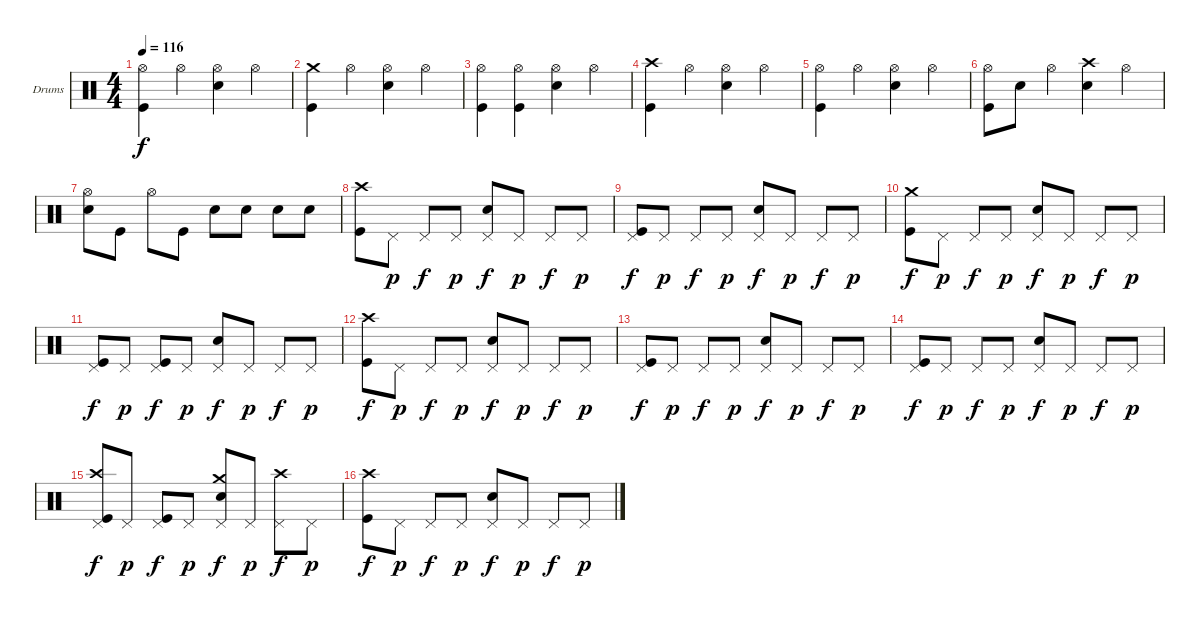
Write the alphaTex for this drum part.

\bracketExtendMode nobrackets
\firstSystemTrackNameOrientation horizontal
\otherSystemsTrackNameOrientation horizontal
\track ("Drumkit" "Drums") {instrument percussion}
\staff {score}
\articulation defaults
\ts (4 4)
\tempo 116
\clef neutral
\ks c
("Kick (hit)" "Hi-Hat (open)").4{dy f} "Hi-Hat (open)".4 ("Hi-Hat (open)" "Snare (hit) 2").4 "Hi-Hat (open)".4 |
("Kick (hit)" "Crash medium (hit)").4 "Hi-Hat (open)".4 ("Hi-Hat (open)" "Snare (hit) 2").4 "Hi-Hat (open)".4 |
("Kick (hit)" "Hi-Hat (open)").4 ("Kick (hit)" "Hi-Hat (open)").4 ("Hi-Hat (open)" "Snare (hit) 2").4 "Hi-Hat (open)".4 |
("Kick (hit)" "Crash high (hit)").4 "Hi-Hat (open)".4 ("Hi-Hat (open)" "Snare (hit) 2").4 "Hi-Hat (open)".4 |
("Kick (hit)" "Hi-Hat (open)").4 "Hi-Hat (open)".4 ("Hi-Hat (open)" "Snare (hit) 2").4 "Hi-Hat (open)".4 |
("Kick (hit)" "Hi-Hat (open)").8 "Snare (hit) 2".8 "Hi-Hat (open)".4 ("Crash high (hit)" "Snare (hit) 2").4 "Hi-Hat (open)".4 |
("Hi-Hat (open)" "Snare (hit) 2").8 "Kick (hit)".8 "Hi-Hat (open)".8 "Kick (hit)".8 "Snare (hit) 2".8 "Snare (hit) 2".8 "Snare (hit) 2".8 "Snare (hit) 2".8 |
("Kick (hit)" "Crash high (hit)").8 "Pedal Hi-Hat (hit)".8{dy p} "Pedal Hi-Hat (hit)".8{dy f} "Pedal Hi-Hat (hit)".8{dy p} ("Pedal Hi-Hat (hit)" "Snare (hit) 2").8{dy f} "Pedal Hi-Hat (hit)".8{dy p} "Pedal Hi-Hat (hit)".8{dy f} "Pedal Hi-Hat (hit)".8{dy p} |
("Kick (hit)" "Pedal Hi-Hat (hit)").8{dy f} "Pedal Hi-Hat (hit)".8{dy p} "Pedal Hi-Hat (hit)".8{dy f} "Pedal Hi-Hat (hit)".8{dy p} ("Pedal Hi-Hat (hit)" "Snare (hit) 2").8{dy f} "Pedal Hi-Hat (hit)".8{dy p} "Pedal Hi-Hat (hit)".8{dy f} "Pedal Hi-Hat (hit)".8{dy p} |
("Kick (hit)" "Crash medium (hit)").8{dy f} "Pedal Hi-Hat (hit)".8{dy p} "Pedal Hi-Hat (hit)".8{dy f} "Pedal Hi-Hat (hit)".8{dy p} ("Pedal Hi-Hat (hit)" "Snare (hit) 2").8{dy f} "Pedal Hi-Hat (hit)".8{dy p} "Pedal Hi-Hat (hit)".8{dy f} "Pedal Hi-Hat (hit)".8{dy p} |
("Kick (hit)" "Pedal Hi-Hat (hit)").8{dy f} "Pedal Hi-Hat (hit)".8{dy p} ("Kick (hit)" "Pedal Hi-Hat (hit)").8{dy f} "Pedal Hi-Hat (hit)".8{dy p} ("Pedal Hi-Hat (hit)" "Snare (hit) 2").8{dy f} "Pedal Hi-Hat (hit)".8{dy p} "Pedal Hi-Hat (hit)".8{dy f} "Pedal Hi-Hat (hit)".8{dy p} |
("Kick (hit)" "Crash high (hit)").8{dy f} "Pedal Hi-Hat (hit)".8{dy p} "Pedal Hi-Hat (hit)".8{dy f} "Pedal Hi-Hat (hit)".8{dy p} ("Pedal Hi-Hat (hit)" "Snare (hit) 2").8{dy f} "Pedal Hi-Hat (hit)".8{dy p} "Pedal Hi-Hat (hit)".8{dy f} "Pedal Hi-Hat (hit)".8{dy p} |
("Kick (hit)" "Pedal Hi-Hat (hit)").8{dy f} "Pedal Hi-Hat (hit)".8{dy p} "Pedal Hi-Hat (hit)".8{dy f} "Pedal Hi-Hat (hit)".8{dy p} ("Pedal Hi-Hat (hit)" "Snare (hit) 2").8{dy f} "Pedal Hi-Hat (hit)".8{dy p} "Pedal Hi-Hat (hit)".8{dy f} "Pedal Hi-Hat (hit)".8{dy p} |
("Kick (hit)" "Pedal Hi-Hat (hit)").8{dy f} "Pedal Hi-Hat (hit)".8{dy p} "Pedal Hi-Hat (hit)".8{dy f} "Pedal Hi-Hat (hit)".8{dy p} ("Pedal Hi-Hat (hit)" "Snare (hit) 2").8{dy f} "Pedal Hi-Hat (hit)".8{dy p} "Pedal Hi-Hat (hit)".8{dy f} "Pedal Hi-Hat (hit)".8{dy p} |
("Kick (hit)" "Crash high (hit)" "Pedal Hi-Hat (hit)").8{dy f} "Pedal Hi-Hat (hit)".8{dy p} ("Kick (hit)" "Pedal Hi-Hat (hit)").8{dy f} "Pedal Hi-Hat (hit)".8{dy p} ("Crash medium (hit)" "Pedal Hi-Hat (hit)" "Snare (hit) 2").8{dy f} "Pedal Hi-Hat (hit)".8{dy p} ("Crash high (hit)" "Pedal Hi-Hat (hit)").8{dy f} "Pedal Hi-Hat (hit)".8{dy p} |
("Kick (hit)" "Crash high (hit)").8{dy f} "Pedal Hi-Hat (hit)".8{dy p} "Pedal Hi-Hat (hit)".8{dy f} "Pedal Hi-Hat (hit)".8{dy p} ("Pedal Hi-Hat (hit)" "Snare (hit) 2").8{dy f} "Pedal Hi-Hat (hit)".8{dy p} "Pedal Hi-Hat (hit)".8{dy f} "Pedal Hi-Hat (hit)".8{dy p}
